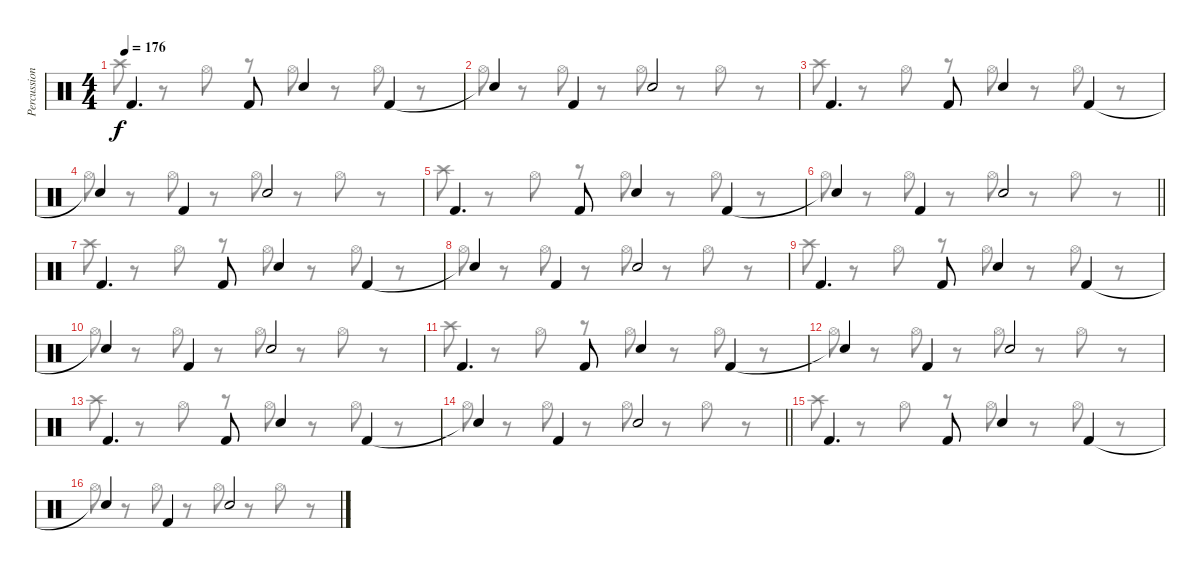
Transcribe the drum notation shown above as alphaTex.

\track ("Percussion" "Percussion") {instrument percussion}
\staff {score}
\articulation defaults
\voice
\ts (4 4)
\tempo 176
\clef neutral
\ks c "Kick (hit) 2".4{d dy f} "Kick (hit) 2".8 "Electric Snare (hit)".4 "Kick (hit) 2".4
|
"Snare (hit)"{t}.4 "Kick (hit) 2".4 "Electric Snare (hit)".2 |
"Kick (hit) 2".4{d} "Kick (hit) 2".8 "Electric Snare (hit)".4 "Kick (hit) 2".4 |
"Snare (hit)"{t}.4 "Kick (hit) 2".4 "Electric Snare (hit)".2 |
"Kick (hit) 2".4{d} "Kick (hit) 2".8 "Electric Snare (hit)".4 "Kick (hit) 2".4 |
\barLineRight lightlight "Snare (hit)"{t}.4 "Kick (hit) 2".4 "Electric Snare (hit)".2
|
"Kick (hit) 2".4{d} "Kick (hit) 2".8 "Electric Snare (hit)".4 "Kick (hit) 2".4 |
"Snare (hit)"{t}.4 "Kick (hit) 2".4 "Electric Snare (hit)".2 |
"Kick (hit) 2".4{d} "Kick (hit) 2".8 "Electric Snare (hit)".4 "Kick (hit) 2".4 |
"Snare (hit)"{t}.4 "Kick (hit) 2".4 "Electric Snare (hit)".2 |
"Kick (hit) 2".4{d} "Kick (hit) 2".8 "Electric Snare (hit)".4 "Kick (hit) 2".4 |
"Snare (hit)"{t}.4 "Kick (hit) 2".4 "Electric Snare (hit)".2 |
"Kick (hit) 2".4{d} "Kick (hit) 2".8 "Electric Snare (hit)".4 "Kick (hit) 2".4 |
\barLineRight lightlight "Snare (hit)"{t}.4 "Kick (hit) 2".4 "Electric Snare (hit)".2
|
"Kick (hit) 2".4{d} "Kick (hit) 2".8 "Electric Snare (hit)".4 "Kick (hit) 2".4 |
"Snare (hit)"{t}.4 "Kick (hit) 2".4 "Electric Snare (hit)".2
\voice
\clef neutral
\ottava regular
\simile none
\ks c "Crash high (hit)".8{dy f}
r.8 "Hi-Hat (open)".8 r.8 "Hi-Hat (open)".8 r.8 "Hi-Hat (open)".8 r.8 |
"Hi-Hat (open)".8 r.8 "Hi-Hat (open)".8 r.8 "Hi-Hat (open)".8 r.8 "Hi-Hat (open)".8 r.8 |
"Crash high (hit)".8 r.8 "Hi-Hat (open)".8 r.8 "Hi-Hat (open)".8 r.8 "Hi-Hat (open)".8 r.8 |
"Hi-Hat (open)".8 r.8 "Hi-Hat (open)".8 r.8 "Hi-Hat (open)".8 r.8 "Hi-Hat (open)".8 r.8 |
"Crash high (hit)".8 r.8 "Hi-Hat (open)".8 r.8 "Hi-Hat (open)".8 r.8 "Hi-Hat (open)".8 r.8 |
\barLineRight lightlight "Hi-Hat (open)".8
r.8 "Hi-Hat (open)".8 r.8 "Hi-Hat (open)".8 r.8 "Hi-Hat (open)".8 r.8 |
"Crash high (hit)".8 r.8 "Hi-Hat (open)".8 r.8 "Hi-Hat (open)".8 r.8 "Hi-Hat (open)".8 r.8 |
"Hi-Hat (open)".8 r.8 "Hi-Hat (open)".8 r.8 "Hi-Hat (open)".8 r.8 "Hi-Hat (open)".8 r.8 |
"Crash high (hit)".8 r.8 "Hi-Hat (open)".8 r.8 "Hi-Hat (open)".8 r.8 "Hi-Hat (open)".8 r.8 |
"Hi-Hat (open)".8 r.8 "Hi-Hat (open)".8 r.8 "Hi-Hat (open)".8 r.8 "Hi-Hat (open)".8 r.8 |
"Crash high (hit)".8 r.8 "Hi-Hat (open)".8 r.8 "Hi-Hat (open)".8 r.8 "Hi-Hat (open)".8 r.8 |
"Hi-Hat (open)".8 r.8 "Hi-Hat (open)".8 r.8 "Hi-Hat (open)".8 r.8 "Hi-Hat (open)".8 r.8 |
"Crash high (hit)".8 r.8 "Hi-Hat (open)".8 r.8 "Hi-Hat (open)".8 r.8 "Hi-Hat (open)".8 r.8 |
\barLineRight lightlight "Hi-Hat (open)".8
r.8 "Hi-Hat (open)".8 r.8 "Hi-Hat (open)".8 r.8 "Hi-Hat (open)".8 r.8 |
"Crash high (hit)".8 r.8 "Hi-Hat (open)".8 r.8 "Hi-Hat (open)".8 r.8 "Hi-Hat (open)".8 r.8 |
"Hi-Hat (open)".8 r.8 "Hi-Hat (open)".8 r.8 "Hi-Hat (open)".8 r.8 "Hi-Hat (open)".8 r.8
